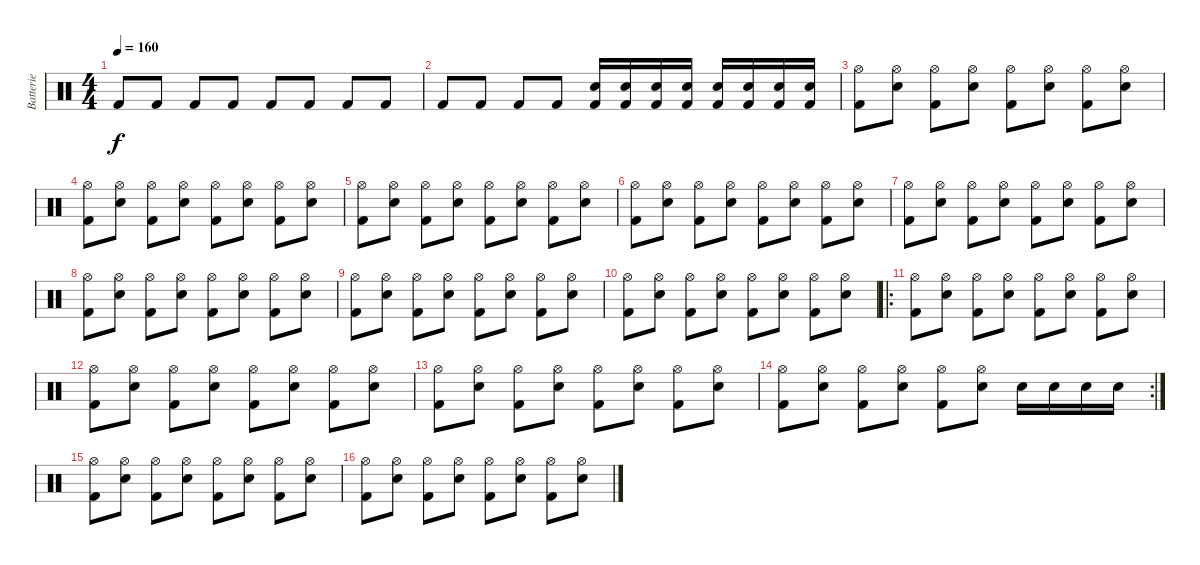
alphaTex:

\track ("Batterie" "Batterie") {instrument percussion}
\staff {score}
\articulation defaults
\ts (4 4)
\tempo 160
\clef neutral
\ks c "Kick (hit) 2".8{dy f} "Kick (hit) 2".8 "Kick (hit) 2".8 "Kick (hit) 2".8 "Kick (hit) 2".8 "Kick (hit) 2".8 "Kick (hit) 2".8 "Kick (hit) 2".8
|
"Kick (hit) 2".8 "Kick (hit) 2".8 "Kick (hit) 2".8 "Kick (hit) 2".8 ("Electric Snare (hit)" "Kick (hit) 2").16 ("Electric Snare (hit)" "Kick (hit) 2").16 ("Electric Snare (hit)" "Kick (hit) 2").16 ("Electric Snare (hit)" "Kick (hit) 2").16 ("Electric Snare (hit)" "Kick (hit) 2").16 ("Electric Snare (hit)" "Kick (hit) 2").16 ("Electric Snare (hit)" "Kick (hit) 2").16 ("Electric Snare (hit)" "Kick (hit) 2").16 |
("Kick (hit) 2" "Hi-Hat (open)").8{volume 12} ("Electric Snare (hit)" "Hi-Hat (open)").8 ("Kick (hit) 2" "Hi-Hat (open)").8 ("Electric Snare (hit)" "Hi-Hat (open)").8 ("Kick (hit) 2" "Hi-Hat (open)").8 ("Electric Snare (hit)" "Hi-Hat (open)").8 ("Kick (hit) 2" "Hi-Hat (open)").8 ("Electric Snare (hit)" "Hi-Hat (open)").8 |
("Kick (hit) 2" "Hi-Hat (open)").8 ("Electric Snare (hit)" "Hi-Hat (open)").8 ("Kick (hit) 2" "Hi-Hat (open)").8 ("Electric Snare (hit)" "Hi-Hat (open)").8 ("Kick (hit) 2" "Hi-Hat (open)").8 ("Electric Snare (hit)" "Hi-Hat (open)").8 ("Kick (hit) 2" "Hi-Hat (open)").8 ("Electric Snare (hit)" "Hi-Hat (open)").8 |
("Kick (hit) 2" "Hi-Hat (open)").8 ("Electric Snare (hit)" "Hi-Hat (open)").8 ("Kick (hit) 2" "Hi-Hat (open)").8 ("Electric Snare (hit)" "Hi-Hat (open)").8 ("Kick (hit) 2" "Hi-Hat (open)").8 ("Electric Snare (hit)" "Hi-Hat (open)").8 ("Kick (hit) 2" "Hi-Hat (open)").8 ("Electric Snare (hit)" "Hi-Hat (open)").8 |
("Kick (hit) 2" "Hi-Hat (open)").8 ("Electric Snare (hit)" "Hi-Hat (open)").8 ("Kick (hit) 2" "Hi-Hat (open)").8 ("Electric Snare (hit)" "Hi-Hat (open)").8 ("Kick (hit) 2" "Hi-Hat (open)").8 ("Electric Snare (hit)" "Hi-Hat (open)").8 ("Kick (hit) 2" "Hi-Hat (open)").8 ("Electric Snare (hit)" "Hi-Hat (open)").8 |
("Kick (hit) 2" "Hi-Hat (open)").8 ("Electric Snare (hit)" "Hi-Hat (open)").8 ("Kick (hit) 2" "Hi-Hat (open)").8 ("Electric Snare (hit)" "Hi-Hat (open)").8 ("Kick (hit) 2" "Hi-Hat (open)").8 ("Electric Snare (hit)" "Hi-Hat (open)").8 ("Kick (hit) 2" "Hi-Hat (open)").8 ("Electric Snare (hit)" "Hi-Hat (open)").8 |
("Kick (hit) 2" "Hi-Hat (open)").8 ("Electric Snare (hit)" "Hi-Hat (open)").8 ("Kick (hit) 2" "Hi-Hat (open)").8 ("Electric Snare (hit)" "Hi-Hat (open)").8 ("Kick (hit) 2" "Hi-Hat (open)").8 ("Electric Snare (hit)" "Hi-Hat (open)").8 ("Kick (hit) 2" "Hi-Hat (open)").8 ("Electric Snare (hit)" "Hi-Hat (open)").8 |
("Kick (hit) 2" "Hi-Hat (open)").8 ("Electric Snare (hit)" "Hi-Hat (open)").8 ("Kick (hit) 2" "Hi-Hat (open)").8 ("Electric Snare (hit)" "Hi-Hat (open)").8 ("Kick (hit) 2" "Hi-Hat (open)").8 ("Electric Snare (hit)" "Hi-Hat (open)").8 ("Kick (hit) 2" "Hi-Hat (open)").8 ("Electric Snare (hit)" "Hi-Hat (open)").8 |
("Kick (hit) 2" "Hi-Hat (open)").8 ("Electric Snare (hit)" "Hi-Hat (open)").8 ("Kick (hit) 2" "Hi-Hat (open)").8 ("Electric Snare (hit)" "Hi-Hat (open)").8 ("Kick (hit) 2" "Hi-Hat (open)").8 ("Electric Snare (hit)" "Hi-Hat (open)").8 ("Kick (hit) 2" "Hi-Hat (open)").8 ("Electric Snare (hit)" "Hi-Hat (open)").8 |
\ro
("Kick (hit) 2" "Hi-Hat (open)").8 ("Electric Snare (hit)" "Hi-Hat (open)").8 ("Kick (hit) 2" "Hi-Hat (open)").8 ("Electric Snare (hit)" "Hi-Hat (open)").8 ("Kick (hit) 2" "Hi-Hat (open)").8 ("Electric Snare (hit)" "Hi-Hat (open)").8 ("Kick (hit) 2" "Hi-Hat (open)").8 ("Electric Snare (hit)" "Hi-Hat (open)").8 |
("Kick (hit) 2" "Hi-Hat (open)").8 ("Electric Snare (hit)" "Hi-Hat (open)").8 ("Kick (hit) 2" "Hi-Hat (open)").8 ("Electric Snare (hit)" "Hi-Hat (open)").8 ("Kick (hit) 2" "Hi-Hat (open)").8 ("Electric Snare (hit)" "Hi-Hat (open)").8 ("Kick (hit) 2" "Hi-Hat (open)").8 ("Electric Snare (hit)" "Hi-Hat (open)").8 |
("Kick (hit) 2" "Hi-Hat (open)").8 ("Electric Snare (hit)" "Hi-Hat (open)").8 ("Kick (hit) 2" "Hi-Hat (open)").8 ("Electric Snare (hit)" "Hi-Hat (open)").8 ("Kick (hit) 2" "Hi-Hat (open)").8 ("Electric Snare (hit)" "Hi-Hat (open)").8 ("Kick (hit) 2" "Hi-Hat (open)").8 ("Electric Snare (hit)" "Hi-Hat (open)").8 |
\rc 2
("Kick (hit) 2" "Hi-Hat (open)").8 ("Electric Snare (hit)" "Hi-Hat (open)").8 ("Kick (hit) 2" "Hi-Hat (open)").8 ("Electric Snare (hit)" "Hi-Hat (open)").8 ("Kick (hit) 2" "Hi-Hat (open)").8 ("Electric Snare (hit)" "Hi-Hat (open)").8 "Electric Snare (hit)".16 "Electric Snare (hit)".16 "Electric Snare (hit)".16 "Electric Snare (hit)".16 |
("Kick (hit) 2" "Hi-Hat (open)").8 ("Electric Snare (hit)" "Hi-Hat (open)").8 ("Kick (hit) 2" "Hi-Hat (open)").8 ("Electric Snare (hit)" "Hi-Hat (open)").8 ("Kick (hit) 2" "Hi-Hat (open)").8 ("Electric Snare (hit)" "Hi-Hat (open)").8 ("Kick (hit) 2" "Hi-Hat (open)").8 ("Electric Snare (hit)" "Hi-Hat (open)").8 |
("Kick (hit) 2" "Hi-Hat (open)").8 ("Electric Snare (hit)" "Hi-Hat (open)").8 ("Kick (hit) 2" "Hi-Hat (open)").8 ("Electric Snare (hit)" "Hi-Hat (open)").8 ("Kick (hit) 2" "Hi-Hat (open)").8 ("Electric Snare (hit)" "Hi-Hat (open)").8 ("Kick (hit) 2" "Hi-Hat (open)").8 ("Electric Snare (hit)" "Hi-Hat (open)").8
